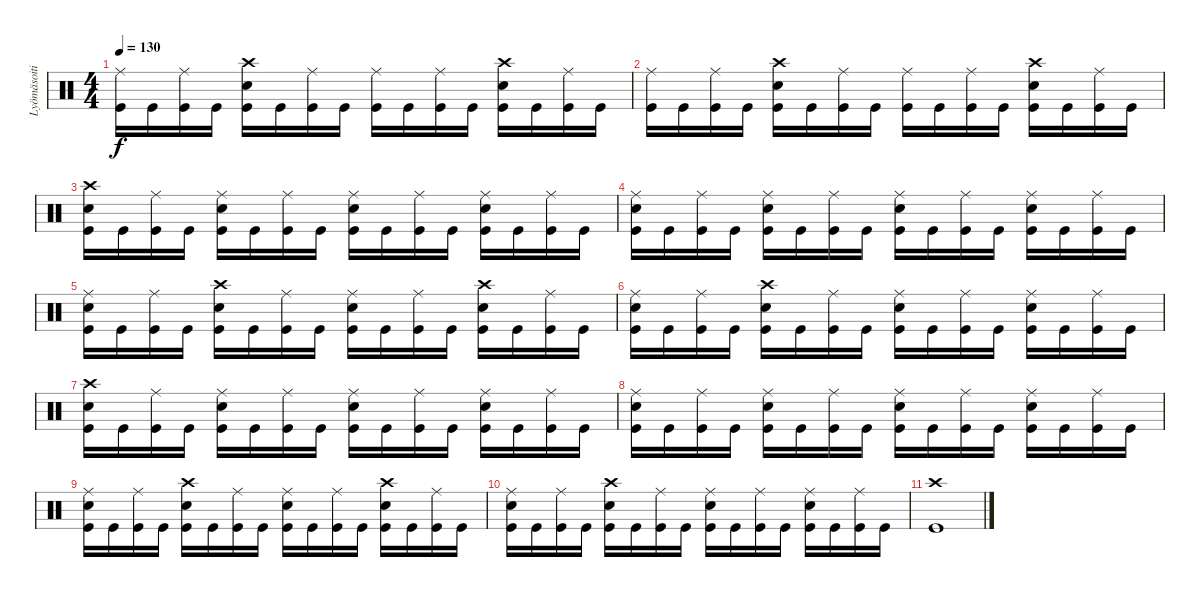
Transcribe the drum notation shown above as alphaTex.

\track ("Lyömäsoitin" "Lyömäsoiti") {instrument percussion}
\staff {score}
\articulation defaults
\ts (4 4)
\tempo 130
\clef neutral
\ks c
("Ride (middle)" "Kick (hit)").16{dy f} "Kick (hit)".16 ("Ride (middle)" "Kick (hit)").16 "Kick (hit)".16 ("Crash high (hit)" "Snare (hit) 2" "Kick (hit)").16 "Kick (hit)".16 ("Ride (middle)" "Kick (hit)").16 "Kick (hit)".16 ("Ride (middle)" "Kick (hit)").16 "Kick (hit)".16 ("Ride (middle)" "Kick (hit)").16 "Kick (hit)".16 ("Crash high (hit)" "Snare (hit) 2" "Kick (hit)").16 "Kick (hit)".16 ("Ride (middle)" "Kick (hit)").16 "Kick (hit)".16 |
("Ride (middle)" "Kick (hit)").16 "Kick (hit)".16 ("Ride (middle)" "Kick (hit)").16 "Kick (hit)".16 ("Crash high (hit)" "Snare (hit) 2" "Kick (hit)").16 "Kick (hit)".16 ("Ride (middle)" "Kick (hit)").16 "Kick (hit)".16 ("Ride (middle)" "Kick (hit)").16 "Kick (hit)".16 ("Ride (middle)" "Kick (hit)").16 "Kick (hit)".16 ("Crash high (hit)" "Snare (hit) 2" "Kick (hit)").16 "Kick (hit)".16 ("Ride (middle)" "Kick (hit)").16 "Kick (hit)".16 |
("Crash high (hit)" "Snare (hit) 2" "Kick (hit)").16 "Kick (hit)".16 ("Ride (middle)" "Kick (hit)").16 "Kick (hit)".16 ("Ride (middle)" "Snare (hit) 2" "Kick (hit)").16 "Kick (hit)".16 ("Ride (middle)" "Kick (hit)").16 "Kick (hit)".16 ("Ride (middle)" "Snare (hit) 2" "Kick (hit)").16 "Kick (hit)".16 ("Ride (middle)" "Kick (hit)").16 "Kick (hit)".16 ("Ride (middle)" "Snare (hit) 2" "Kick (hit)").16 "Kick (hit)".16 ("Ride (middle)" "Kick (hit)").16 "Kick (hit)".16 |
("Ride (middle)" "Snare (hit) 2" "Kick (hit)").16 "Kick (hit)".16 ("Ride (middle)" "Kick (hit)").16 "Kick (hit)".16 ("Ride (middle)" "Snare (hit) 2" "Kick (hit)").16 "Kick (hit)".16 ("Ride (middle)" "Kick (hit)").16 "Kick (hit)".16 ("Ride (middle)" "Snare (hit) 2" "Kick (hit)").16 "Kick (hit)".16 ("Ride (middle)" "Kick (hit)").16 "Kick (hit)".16 ("Ride (middle)" "Snare (hit) 2" "Kick (hit)").16 "Kick (hit)".16 ("Ride (middle)" "Kick (hit)").16 "Kick (hit)".16 |
("Ride (middle)" "Snare (hit) 2" "Kick (hit)").16 "Kick (hit)".16 ("Ride (middle)" "Kick (hit)").16 "Kick (hit)".16 ("Crash high (hit)" "Snare (hit) 2" "Kick (hit)").16 "Kick (hit)".16 ("Ride (middle)" "Kick (hit)").16 "Kick (hit)".16 ("Ride (middle)" "Snare (hit) 2" "Kick (hit)").16 "Kick (hit)".16 ("Ride (middle)" "Kick (hit)").16 "Kick (hit)".16 ("Crash high (hit)" "Snare (hit) 2" "Kick (hit)").16 "Kick (hit)".16 ("Ride (middle)" "Kick (hit)").16 "Kick (hit)".16 |
("Ride (middle)" "Snare (hit) 2" "Kick (hit)").16 "Kick (hit)".16 ("Ride (middle)" "Kick (hit)").16 "Kick (hit)".16 ("Crash high (hit)" "Snare (hit) 2" "Kick (hit)").16 "Kick (hit)".16 ("Ride (middle)" "Kick (hit)").16 "Kick (hit)".16 ("Ride (middle)" "Snare (hit) 2" "Kick (hit)").16 "Kick (hit)".16 ("Ride (middle)" "Kick (hit)").16 "Kick (hit)".16 ("Ride (middle)" "Snare (hit) 2" "Kick (hit)").16 "Kick (hit)".16 ("Ride (middle)" "Kick (hit)").16 "Kick (hit)".16 |
("Crash high (hit)" "Snare (hit) 2" "Kick (hit)").16 "Kick (hit)".16 ("Ride (middle)" "Kick (hit)").16 "Kick (hit)".16 ("Ride (middle)" "Snare (hit) 2" "Kick (hit)").16 "Kick (hit)".16 ("Ride (middle)" "Kick (hit)").16 "Kick (hit)".16 ("Ride (middle)" "Snare (hit) 2" "Kick (hit)").16 "Kick (hit)".16 ("Ride (middle)" "Kick (hit)").16 "Kick (hit)".16 ("Ride (middle)" "Snare (hit) 2" "Kick (hit)").16 "Kick (hit)".16 ("Ride (middle)" "Kick (hit)").16 "Kick (hit)".16 |
("Ride (middle)" "Snare (hit) 2" "Kick (hit)").16 "Kick (hit)".16 ("Ride (middle)" "Kick (hit)").16 "Kick (hit)".16 ("Ride (middle)" "Snare (hit) 2" "Kick (hit)").16 "Kick (hit)".16 ("Ride (middle)" "Kick (hit)").16 "Kick (hit)".16 ("Ride (middle)" "Snare (hit) 2" "Kick (hit)").16 "Kick (hit)".16 ("Ride (middle)" "Kick (hit)").16 "Kick (hit)".16 ("Ride (middle)" "Snare (hit) 2" "Kick (hit)").16 "Kick (hit)".16 ("Ride (middle)" "Kick (hit)").16 "Kick (hit)".16 |
("Ride (middle)" "Snare (hit) 2" "Kick (hit)").16 "Kick (hit)".16 ("Ride (middle)" "Kick (hit)").16 "Kick (hit)".16 ("Crash high (hit)" "Snare (hit) 2" "Kick (hit)").16 "Kick (hit)".16 ("Ride (middle)" "Kick (hit)").16 "Kick (hit)".16 ("Ride (middle)" "Snare (hit) 2" "Kick (hit)").16 "Kick (hit)".16 ("Ride (middle)" "Kick (hit)").16 "Kick (hit)".16 ("Crash high (hit)" "Snare (hit) 2" "Kick (hit)").16 "Kick (hit)".16 ("Ride (middle)" "Kick (hit)").16 "Kick (hit)".16 |
("Ride (middle)" "Snare (hit) 2" "Kick (hit)").16 "Kick (hit)".16 ("Ride (middle)" "Kick (hit)").16 "Kick (hit)".16 ("Crash high (hit)" "Snare (hit) 2" "Kick (hit)").16 "Kick (hit)".16 ("Ride (middle)" "Kick (hit)").16 "Kick (hit)".16 ("Ride (middle)" "Snare (hit) 2" "Kick (hit)").16 "Kick (hit)".16 ("Ride (middle)" "Kick (hit)").16 "Kick (hit)".16 ("Ride (middle)" "Snare (hit) 2" "Kick (hit)").16 "Kick (hit)".16 ("Ride (middle)" "Kick (hit)").16 "Kick (hit)".16 |
("Crash high (hit)" "Kick (hit)").1
